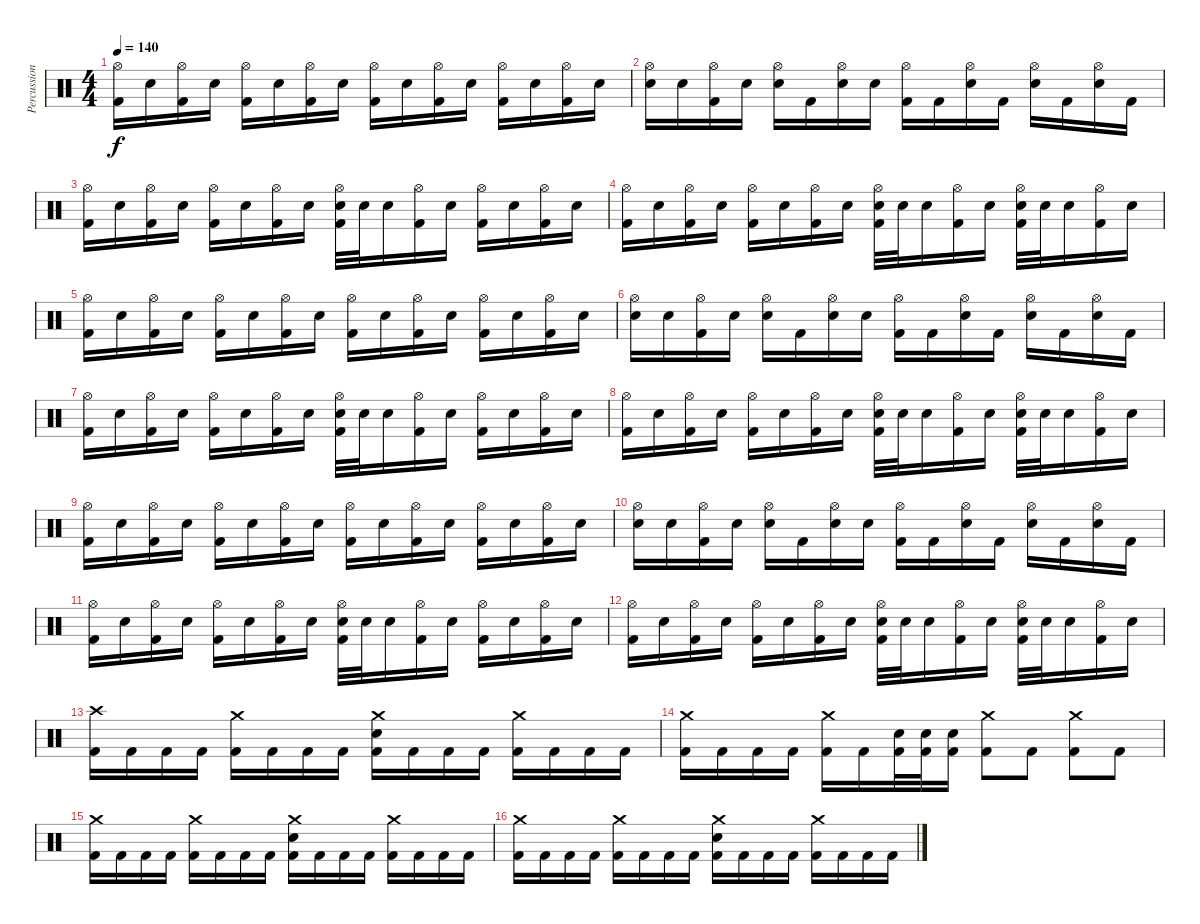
\track ("Percussion" "Percussion") {instrument percussion}
\staff {score}
\articulation defaults
\ts (4 4)
\tempo 140
\clef neutral
\ks c
("Hi-Hat (open)" "Kick (hit) 2").16{dy f} "Snare (hit) 2".16 ("Hi-Hat (open)" "Kick (hit) 2").16 "Snare (hit) 2".16 ("Hi-Hat (open)" "Kick (hit) 2").16 "Snare (hit) 2".16 ("Hi-Hat (open)" "Kick (hit) 2").16 "Snare (hit) 2".16 ("Hi-Hat (open)" "Kick (hit) 2").16 "Snare (hit) 2".16 ("Hi-Hat (open)" "Kick (hit) 2").16 "Snare (hit) 2".16 ("Hi-Hat (open)" "Kick (hit) 2").16 "Snare (hit) 2".16 ("Hi-Hat (open)" "Kick (hit) 2").16 "Snare (hit) 2".16 |
("Hi-Hat (open)" "Snare (hit) 2").16 "Snare (hit) 2".16 ("Hi-Hat (open)" "Kick (hit) 2").16 "Snare (hit) 2".16 ("Hi-Hat (open)" "Snare (hit) 2").16 "Kick (hit) 2".16 ("Hi-Hat (open)" "Snare (hit) 2").16 "Snare (hit) 2".16 ("Hi-Hat (open)" "Kick (hit) 2").16 "Kick (hit) 2".16 ("Hi-Hat (open)" "Snare (hit) 2").16 "Kick (hit) 2".16 ("Hi-Hat (open)" "Snare (hit) 2").16 "Kick (hit) 2".16 ("Hi-Hat (open)" "Snare (hit) 2").16 "Kick (hit) 2".16 |
("Hi-Hat (open)" "Kick (hit) 2").16 "Snare (hit) 2".16 ("Hi-Hat (open)" "Kick (hit) 2").16 "Snare (hit) 2".16 ("Hi-Hat (open)" "Kick (hit) 2").16 "Snare (hit) 2".16 ("Hi-Hat (open)" "Kick (hit) 2").16 "Snare (hit) 2".16 ("Hi-Hat (open)" "Snare (hit) 2" "Kick (hit) 2").32 "Snare (hit) 2".32 "Snare (hit) 2".16 ("Hi-Hat (open)" "Kick (hit) 2").16 "Snare (hit) 2".16 ("Hi-Hat (open)" "Kick (hit) 2").16 "Snare (hit) 2".16 ("Hi-Hat (open)" "Kick (hit) 2").16 "Snare (hit) 2".16 |
("Hi-Hat (open)" "Kick (hit) 2").16 "Snare (hit) 2".16 ("Hi-Hat (open)" "Kick (hit) 2").16 "Snare (hit) 2".16 ("Hi-Hat (open)" "Kick (hit) 2").16 "Snare (hit) 2".16 ("Hi-Hat (open)" "Kick (hit) 2").16 "Snare (hit) 2".16 ("Hi-Hat (open)" "Snare (hit) 2" "Kick (hit) 2").32 "Snare (hit) 2".32 "Snare (hit) 2".16 ("Hi-Hat (open)" "Kick (hit) 2").16 "Snare (hit) 2".16 ("Hi-Hat (open)" "Snare (hit) 2" "Kick (hit) 2").32 "Snare (hit) 2".32 "Snare (hit) 2".16 ("Hi-Hat (open)" "Kick (hit) 2").16 "Snare (hit) 2".16 |
("Hi-Hat (open)" "Kick (hit) 2").16 "Snare (hit) 2".16 ("Hi-Hat (open)" "Kick (hit) 2").16 "Snare (hit) 2".16 ("Hi-Hat (open)" "Kick (hit) 2").16 "Snare (hit) 2".16 ("Hi-Hat (open)" "Kick (hit) 2").16 "Snare (hit) 2".16 ("Hi-Hat (open)" "Kick (hit) 2").16 "Snare (hit) 2".16 ("Hi-Hat (open)" "Kick (hit) 2").16 "Snare (hit) 2".16 ("Hi-Hat (open)" "Kick (hit) 2").16 "Snare (hit) 2".16 ("Hi-Hat (open)" "Kick (hit) 2").16 "Snare (hit) 2".16 |
("Hi-Hat (open)" "Snare (hit) 2").16 "Snare (hit) 2".16 ("Hi-Hat (open)" "Kick (hit) 2").16 "Snare (hit) 2".16 ("Hi-Hat (open)" "Snare (hit) 2").16 "Kick (hit) 2".16 ("Hi-Hat (open)" "Snare (hit) 2").16 "Snare (hit) 2".16 ("Hi-Hat (open)" "Kick (hit) 2").16 "Kick (hit) 2".16 ("Hi-Hat (open)" "Snare (hit) 2").16 "Kick (hit) 2".16 ("Hi-Hat (open)" "Snare (hit) 2").16 "Kick (hit) 2".16 ("Hi-Hat (open)" "Snare (hit) 2").16 "Kick (hit) 2".16 |
("Hi-Hat (open)" "Kick (hit) 2").16 "Snare (hit) 2".16 ("Hi-Hat (open)" "Kick (hit) 2").16 "Snare (hit) 2".16 ("Hi-Hat (open)" "Kick (hit) 2").16 "Snare (hit) 2".16 ("Hi-Hat (open)" "Kick (hit) 2").16 "Snare (hit) 2".16 ("Hi-Hat (open)" "Snare (hit) 2" "Kick (hit) 2").32 "Snare (hit) 2".32 "Snare (hit) 2".16 ("Hi-Hat (open)" "Kick (hit) 2").16 "Snare (hit) 2".16 ("Hi-Hat (open)" "Kick (hit) 2").16 "Snare (hit) 2".16 ("Hi-Hat (open)" "Kick (hit) 2").16 "Snare (hit) 2".16 |
("Hi-Hat (open)" "Kick (hit) 2").16 "Snare (hit) 2".16 ("Hi-Hat (open)" "Kick (hit) 2").16 "Snare (hit) 2".16 ("Hi-Hat (open)" "Kick (hit) 2").16 "Snare (hit) 2".16 ("Hi-Hat (open)" "Kick (hit) 2").16 "Snare (hit) 2".16 ("Hi-Hat (open)" "Snare (hit) 2" "Kick (hit) 2").32 "Snare (hit) 2".32 "Snare (hit) 2".16 ("Hi-Hat (open)" "Kick (hit) 2").16 "Snare (hit) 2".16 ("Hi-Hat (open)" "Snare (hit) 2" "Kick (hit) 2").32 "Snare (hit) 2".32 "Snare (hit) 2".16 ("Hi-Hat (open)" "Kick (hit) 2").16 "Snare (hit) 2".16 |
("Hi-Hat (open)" "Kick (hit) 2").16 "Snare (hit) 2".16 ("Hi-Hat (open)" "Kick (hit) 2").16 "Snare (hit) 2".16 ("Hi-Hat (open)" "Kick (hit) 2").16 "Snare (hit) 2".16 ("Hi-Hat (open)" "Kick (hit) 2").16 "Snare (hit) 2".16 ("Hi-Hat (open)" "Kick (hit) 2").16 "Snare (hit) 2".16 ("Hi-Hat (open)" "Kick (hit) 2").16 "Snare (hit) 2".16 ("Hi-Hat (open)" "Kick (hit) 2").16 "Snare (hit) 2".16 ("Hi-Hat (open)" "Kick (hit) 2").16 "Snare (hit) 2".16 |
("Hi-Hat (open)" "Snare (hit) 2").16 "Snare (hit) 2".16 ("Hi-Hat (open)" "Kick (hit) 2").16 "Snare (hit) 2".16 ("Hi-Hat (open)" "Snare (hit) 2").16 "Kick (hit) 2".16 ("Hi-Hat (open)" "Snare (hit) 2").16 "Snare (hit) 2".16 ("Hi-Hat (open)" "Kick (hit) 2").16 "Kick (hit) 2".16 ("Hi-Hat (open)" "Snare (hit) 2").16 "Kick (hit) 2".16 ("Hi-Hat (open)" "Snare (hit) 2").16 "Kick (hit) 2".16 ("Hi-Hat (open)" "Snare (hit) 2").16 "Kick (hit) 2".16 |
("Hi-Hat (open)" "Kick (hit) 2").16 "Snare (hit) 2".16 ("Hi-Hat (open)" "Kick (hit) 2").16 "Snare (hit) 2".16 ("Hi-Hat (open)" "Kick (hit) 2").16 "Snare (hit) 2".16 ("Hi-Hat (open)" "Kick (hit) 2").16 "Snare (hit) 2".16 ("Hi-Hat (open)" "Snare (hit) 2" "Kick (hit) 2").32 "Snare (hit) 2".32 "Snare (hit) 2".16 ("Hi-Hat (open)" "Kick (hit) 2").16 "Snare (hit) 2".16 ("Hi-Hat (open)" "Kick (hit) 2").16 "Snare (hit) 2".16 ("Hi-Hat (open)" "Kick (hit) 2").16 "Snare (hit) 2".16 |
("Hi-Hat (open)" "Kick (hit) 2").16 "Snare (hit) 2".16 ("Hi-Hat (open)" "Kick (hit) 2").16 "Snare (hit) 2".16 ("Hi-Hat (open)" "Kick (hit) 2").16 "Snare (hit) 2".16 ("Hi-Hat (open)" "Kick (hit) 2").16 "Snare (hit) 2".16 ("Hi-Hat (open)" "Snare (hit) 2" "Kick (hit) 2").32 "Snare (hit) 2".32 "Snare (hit) 2".16 ("Hi-Hat (open)" "Kick (hit) 2").16 "Snare (hit) 2".16 ("Hi-Hat (open)" "Snare (hit) 2" "Kick (hit) 2").32 "Snare (hit) 2".32 "Snare (hit) 2".16 ("Hi-Hat (open)" "Kick (hit) 2").16 "Snare (hit) 2".16 |
("Crash high (hit)" "Kick (hit) 2").16 "Kick (hit) 2".16 "Kick (hit) 2".16 "Kick (hit) 2".16 ("Crash medium (hit)" "Kick (hit) 2").16 "Kick (hit) 2".16 "Kick (hit) 2".16 "Kick (hit) 2".16 ("Crash medium (hit)" "Snare (hit) 2" "Kick (hit) 2").16 "Kick (hit) 2".16 "Kick (hit) 2".16 "Kick (hit) 2".16 ("Crash medium (hit)" "Kick (hit) 2").16 "Kick (hit) 2".16 "Kick (hit) 2".16 "Kick (hit) 2".16 |
("Crash medium (hit)" "Kick (hit) 2").16 "Kick (hit) 2".16 "Kick (hit) 2".16 "Kick (hit) 2".16 ("Crash medium (hit)" "Kick (hit) 2").16 "Kick (hit) 2".16 ("Snare (hit) 2" "Kick (hit) 2").32 ("Snare (hit) 2" "Kick (hit) 2").32 ("Snare (hit) 2" "Kick (hit) 2").16 ("Crash medium (hit)" "Kick (hit) 2").8 "Kick (hit) 2".8 ("Crash medium (hit)" "Kick (hit) 2").8 "Kick (hit) 2".8 |
("Crash medium (hit)" "Kick (hit) 2").16 "Kick (hit) 2".16 "Kick (hit) 2".16 "Kick (hit) 2".16 ("Crash medium (hit)" "Kick (hit) 2").16 "Kick (hit) 2".16 "Kick (hit) 2".16 "Kick (hit) 2".16 ("Crash medium (hit)" "Snare (hit) 2" "Kick (hit) 2").16 "Kick (hit) 2".16 "Kick (hit) 2".16 "Kick (hit) 2".16 ("Crash medium (hit)" "Kick (hit) 2").16 "Kick (hit) 2".16 "Kick (hit) 2".16 "Kick (hit) 2".16 |
("Crash medium (hit)" "Kick (hit) 2").16 "Kick (hit) 2".16 "Kick (hit) 2".16 "Kick (hit) 2".16 ("Crash medium (hit)" "Kick (hit) 2").16 "Kick (hit) 2".16 "Kick (hit) 2".16 "Kick (hit) 2".16 ("Crash medium (hit)" "Snare (hit) 2" "Kick (hit) 2").16 "Kick (hit) 2".16 "Kick (hit) 2".16 "Kick (hit) 2".16 ("Crash medium (hit)" "Kick (hit) 2").16 "Kick (hit) 2".16 "Kick (hit) 2".16 "Kick (hit) 2".16
